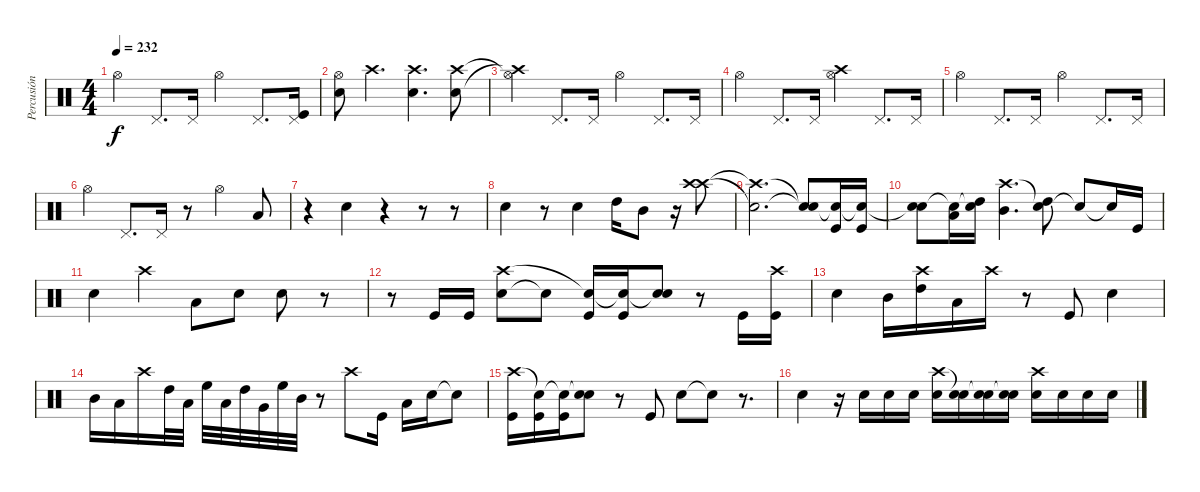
\track ("Percusión" "Percusión") {instrument percussion}
\staff {score}
\articulation defaults
\ts (4 4)
\tempo 232
\clef neutral
\ks c "Hi-Hat (open)".4{dy f} "Pedal Hi-Hat (hit)".8{d} "Pedal Hi-Hat (hit)".16 "Hi-Hat (open)".4 "Pedal Hi-Hat (hit)".8{d}
("Pedal Hi-Hat (hit)" "Kick (hit)").16 |
("Hi-Hat (open)" "Snare (hit) 2").8 "Crash high (hit)".4{d} ("Crash high (hit)" "Snare (hit) 2").4{d} ("Crash high (hit)" "Snare (hit) 2").8 |
("Hi-Hat (open)"{t} "Crash high (hit)"{t}).4 "Pedal Hi-Hat (hit)".8{d} "Pedal Hi-Hat (hit)".16 "Hi-Hat (open)".4 "Pedal Hi-Hat (hit)".8{d} "Pedal Hi-Hat (hit)".16 |
"Hi-Hat (open)".4 "Pedal Hi-Hat (hit)".8{d} "Pedal Hi-Hat (hit)".16 ("Hi-Hat (open)" "Crash high (hit)").4 "Pedal Hi-Hat (hit)".8{d} "Pedal Hi-Hat (hit)".16 |
"Hi-Hat (open)".4 "Pedal Hi-Hat (hit)".8{d} "Pedal Hi-Hat (hit)".16 "Hi-Hat (open)".4 "Pedal Hi-Hat (hit)".8{d} "Pedal Hi-Hat (hit)".16 |
"Hi-Hat (open)".4 "Pedal Hi-Hat (hit)".8{d} "Pedal Hi-Hat (hit)".16 r.8 "Hi-Hat (open)".4 "Low Floor Tom (hit)".8 |
r.4 "Snare (hit) 2".4 r.4 r.8 r.8 |
"Snare (hit) 2".4 r.8 "Snare (hit) 2".4 "High Tom (hit)".16 "Mid Tom (hit)".8 r.16 ("Crash high (hit)" "Crash high (hit)").8 |
("Snare (hit)"{t} "Crash high (hit)"{t}).2{d} ("Snare (hit)"{t} "Snare (hit)"{t}).8 ("Snare (hit)"{t} "Kick (hit)").16 ("Snare (hit)"{t} "Kick (hit)").16 |
("Snare (hit)"{t} "Snare (hit) 2").8 ("Snare (hit)"{t} "Low Floor Tom (hit)").16 ("Snare (hit)"{t} "High Tom (hit)").16 ("Crash high (hit)" "Mid Tom (hit)").4{d} ("Snare (hit)"{t} "High Tom (hit)").8 "Snare (hit)"{t}.8 "Snare (hit)"{t}.16 "Kick (hit)".16 |
"Snare (hit) 2".4 "Crash high (hit)".4 "Low Floor Tom (hit)".8 "Snare (hit) 2".8 "Snare (hit) 2".8 r.8 |
r.8 "Kick (hit)".16 "Kick (hit)".16 ("Snare (hit) 2" "Crash high (hit)").8 "Snare (hit)"{t}.8 ("Kick (hit)" "Snare (hit)"{t}).16 ("Kick (hit)" "Snare (hit)"{t}).16 ("Snare (hit) 2" "Snare (hit)"{t}).8 r.8 "Kick (hit)".16 ("Kick (hit)" "Crash high (hit)").16 |
"Snare (hit) 2".4 "Mid Tom (hit)".16 ("High Tom (hit)" "Crash high (hit)").16 "Low Floor Tom (hit)".16 "Crash high (hit)".16 r.8 "Kick (hit)".8 "Snare (hit) 2".4 |
"Mid Tom (hit)".16 "Low Floor Tom (hit)".16 "Crash high (hit)".16 "High Tom (hit)".32 "Low Floor Tom (hit)".32 "High Floor Tom (hit)".32 "Low Floor Tom (hit)".32 "High Tom (hit)".32 "Very Low Tom (hit)".32 "High Floor Tom (hit)".32 "Mid Tom (hit)".32 r.8 "Crash high (hit)".8 "Kick (hit)".16 "Low Floor Tom (hit)".16 "Snare (hit) 2".16 "Snare (hit)"{t}.8 |
("Kick (hit)" "Crash high (hit)").16 ("Kick (hit)" "Snare (hit)"{t}).16 ("Kick (hit)" "Snare (hit)"{t}).16 ("Snare (hit) 2" "Snare (hit)"{t}).8 r.8 "Kick (hit)".8 "Snare (hit) 2".8 "Snare (hit)"{t}.8 r.8{d} |
"Snare (hit) 2".4 r.16 "Snare (hit) 2".16 "Snare (hit) 2".16 "Snare (hit) 2".16 ("Snare (hit) 2" "Crash high (hit)").16 ("Snare (hit) 2" "Snare (hit)"{t}).16 ("Snare (hit) 2" "Snare (hit)"{t}).16 ("Snare (hit) 2" "Snare (hit)"{t}).16 ("Snare (hit) 2" "Crash high (hit)").16 "Snare (hit) 2".16 "Snare (hit) 2".16 "Snare (hit) 2".16
